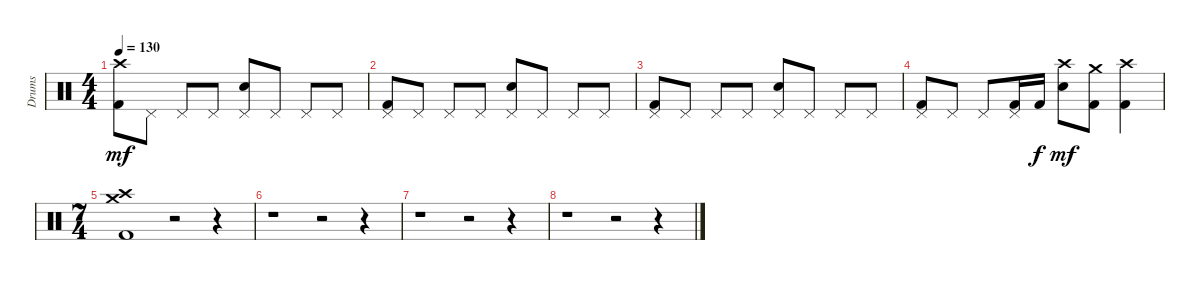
\track ("Drums" "Drums") {instrument percussion}
\staff {score}
\articulation defaults
\ts (4 4)
\tempo 130
\clef neutral
\ks c
("Kick (hit) 2" "Crash high (hit)").8{dy mf} "Pedal Hi-Hat (hit)".8 "Pedal Hi-Hat (hit)".8 "Pedal Hi-Hat (hit)".8 ("Electric Snare (hit)" "Pedal Hi-Hat (hit)").8 "Pedal Hi-Hat (hit)".8 "Pedal Hi-Hat (hit)".8 "Pedal Hi-Hat (hit)".8 |
("Kick (hit) 2" "Pedal Hi-Hat (hit)").8 "Pedal Hi-Hat (hit)".8 "Pedal Hi-Hat (hit)".8 "Pedal Hi-Hat (hit)".8 ("Electric Snare (hit)" "Pedal Hi-Hat (hit)").8 "Pedal Hi-Hat (hit)".8 "Pedal Hi-Hat (hit)".8 "Pedal Hi-Hat (hit)".8 |
("Kick (hit) 2" "Pedal Hi-Hat (hit)").8 "Pedal Hi-Hat (hit)".8 "Pedal Hi-Hat (hit)".8 "Pedal Hi-Hat (hit)".8 ("Electric Snare (hit)" "Pedal Hi-Hat (hit)").8 "Pedal Hi-Hat (hit)".8 "Pedal Hi-Hat (hit)".8 "Pedal Hi-Hat (hit)".8 |
("Kick (hit) 2" "Pedal Hi-Hat (hit)").8 "Pedal Hi-Hat (hit)".8 "Pedal Hi-Hat (hit)".8 ("Kick (hit) 2" "Pedal Hi-Hat (hit)").16 "Kick (hit) 2".16{dy f} ("Electric Snare (hit)" "Crash high (hit)").8{dy mf} ("Kick (hit) 2" "Crash medium (hit)").8 ("Kick (hit) 2" "Crash high (hit)").4 |
\ts (7 4)
("Kick (hit) 2" "Crash high (hit)" "Crash medium (hit)").1 r.2 r.4 |
r.1 r.2 r.4 |
r.1 r.2 r.4 |
r.1 r.2 r.4
